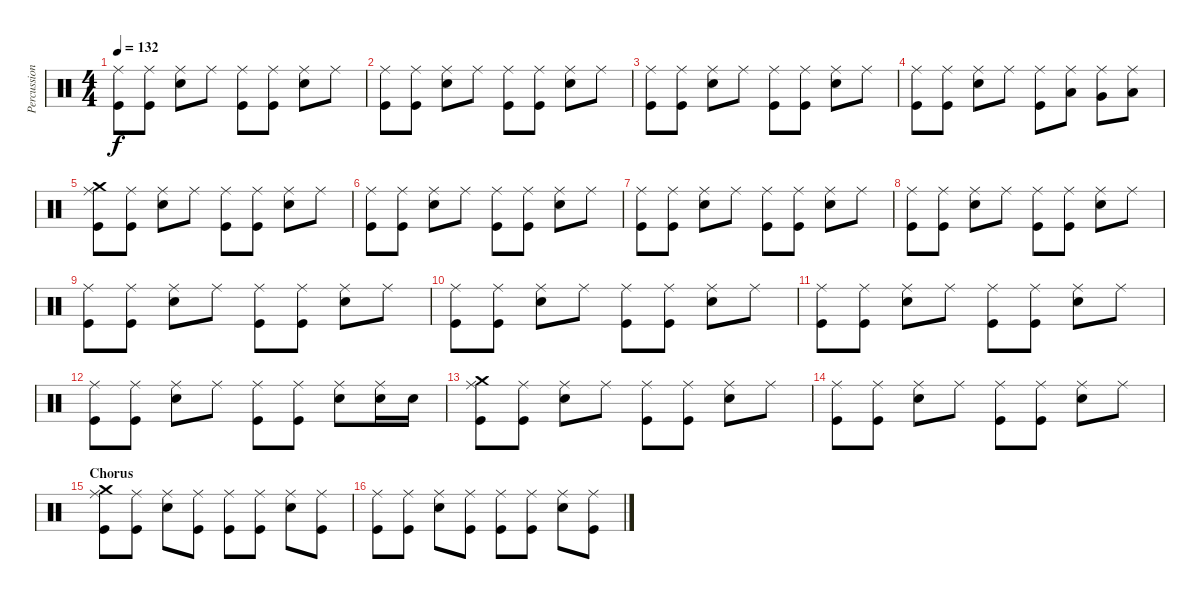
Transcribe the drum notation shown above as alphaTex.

\track ("Percussions" "Percussion") {instrument percussion}
\staff {score}
\articulation defaults
\ts (4 4)
\tempo 132
\clef neutral
\ks c
("Ride (middle)" "Kick (hit)").8{dy f} ("Ride (middle)" "Kick (hit)").8 ("Ride (middle)" "Snare (hit) 2").8 "Ride (middle)".8 ("Ride (middle)" "Kick (hit)").8 ("Ride (middle)" "Kick (hit)").8 ("Ride (middle)" "Snare (hit) 2").8 "Ride (middle)".8 |
("Ride (middle)" "Kick (hit)").8 ("Ride (middle)" "Kick (hit)").8 ("Ride (middle)" "Snare (hit) 2").8 "Ride (middle)".8 ("Ride (middle)" "Kick (hit)").8 ("Ride (middle)" "Kick (hit)").8 ("Ride (middle)" "Snare (hit) 2").8 "Ride (middle)".8 |
("Ride (middle)" "Kick (hit)").8 ("Ride (middle)" "Kick (hit)").8 ("Ride (middle)" "Snare (hit) 2").8 "Ride (middle)".8 ("Ride (middle)" "Kick (hit)").8 ("Ride (middle)" "Kick (hit)").8 ("Ride (middle)" "Snare (hit) 2").8 "Ride (middle)".8 |
("Ride (middle)" "Kick (hit)").8 ("Ride (middle)" "Kick (hit)").8 ("Ride (middle)" "Snare (hit) 2").8 "Ride (middle)".8 ("Ride (middle)" "Kick (hit)").8 ("Ride (middle)" "Low Tom (hit)").8 ("Ride (middle)" "Very Low Tom (hit)").8 ("Ride (middle)" "Low Floor Tom (hit)").8 |
("Ride (middle)" "Crash medium (hit)" "Kick (hit)").8 ("Ride (middle)" "Kick (hit)").8 ("Ride (middle)" "Snare (hit) 2").8 "Ride (middle)".8 ("Ride (middle)" "Kick (hit)").8 ("Ride (middle)" "Kick (hit)").8 ("Ride (middle)" "Snare (hit) 2").8 "Ride (middle)".8 |
("Ride (middle)" "Kick (hit)").8 ("Ride (middle)" "Kick (hit)").8 ("Ride (middle)" "Snare (hit) 2").8 "Ride (middle)".8 ("Ride (middle)" "Kick (hit)").8 ("Ride (middle)" "Kick (hit)").8 ("Ride (middle)" "Snare (hit) 2").8 "Ride (middle)".8 |
("Ride (middle)" "Kick (hit)").8 ("Ride (middle)" "Kick (hit)").8 ("Ride (middle)" "Snare (hit) 2").8 "Ride (middle)".8 ("Ride (middle)" "Kick (hit)").8 ("Ride (middle)" "Kick (hit)").8 ("Ride (middle)" "Snare (hit) 2").8 "Ride (middle)".8 |
("Ride (middle)" "Kick (hit)").8 ("Ride (middle)" "Kick (hit)").8 ("Ride (middle)" "Snare (hit) 2").8 "Ride (middle)".8 ("Ride (middle)" "Kick (hit)").8 ("Ride (middle)" "Kick (hit)").8 ("Ride (middle)" "Snare (hit) 2").8 "Ride (middle)".8 |
("Ride (middle)" "Kick (hit)").8 ("Ride (middle)" "Kick (hit)").8 ("Ride (middle)" "Snare (hit) 2").8 "Ride (middle)".8 ("Ride (middle)" "Kick (hit)").8 ("Ride (middle)" "Kick (hit)").8 ("Ride (middle)" "Snare (hit) 2").8 "Ride (middle)".8 |
("Ride (middle)" "Kick (hit)").8 ("Ride (middle)" "Kick (hit)").8 ("Ride (middle)" "Snare (hit) 2").8 "Ride (middle)".8 ("Ride (middle)" "Kick (hit)").8 ("Ride (middle)" "Kick (hit)").8 ("Ride (middle)" "Snare (hit) 2").8 "Ride (middle)".8 |
("Ride (middle)" "Kick (hit)").8 ("Ride (middle)" "Kick (hit)").8 ("Ride (middle)" "Snare (hit) 2").8 "Ride (middle)".8 ("Ride (middle)" "Kick (hit)").8 ("Ride (middle)" "Kick (hit)").8 ("Ride (middle)" "Snare (hit) 2").8 "Ride (middle)".8 |
("Ride (middle)" "Kick (hit)").8 ("Ride (middle)" "Kick (hit)").8 ("Ride (middle)" "Snare (hit) 2").8 "Ride (middle)".8 ("Ride (middle)" "Kick (hit)").8 ("Ride (middle)" "Kick (hit)").8 ("Ride (middle)" "Snare (hit) 2").8 ("Ride (middle)" "Snare (hit) 2").16 "Snare (hit) 2".16 |
("Ride (middle)" "Crash medium (hit)" "Kick (hit)").8 ("Ride (middle)" "Kick (hit)").8 ("Ride (middle)" "Snare (hit) 2").8 "Ride (middle)".8 ("Ride (middle)" "Kick (hit)").8 ("Ride (middle)" "Kick (hit)").8 ("Ride (middle)" "Snare (hit) 2").8 "Ride (middle)".8 |
("Ride (middle)" "Kick (hit)").8 ("Ride (middle)" "Kick (hit)").8 ("Ride (middle)" "Snare (hit) 2").8 "Ride (middle)".8 ("Ride (middle)" "Kick (hit)").8 ("Ride (middle)" "Kick (hit)").8 ("Ride (middle)" "Snare (hit) 2").8 "Ride (middle)".8 |
\section ("" "Chorus")
("Ride (middle)" "Crash medium (hit)" "Kick (hit)").8 ("Ride (middle)" "Kick (hit)").8 ("Ride (middle)" "Snare (hit) 2").8 ("Ride (middle)" "Kick (hit)").8 ("Ride (middle)" "Kick (hit)").8 ("Ride (middle)" "Kick (hit)").8 ("Ride (middle)" "Snare (hit) 2").8 ("Ride (middle)" "Kick (hit)").8 |
("Ride (middle)" "Kick (hit)").8 ("Ride (middle)" "Kick (hit)").8 ("Ride (middle)" "Snare (hit) 2").8 ("Ride (middle)" "Kick (hit)").8 ("Ride (middle)" "Kick (hit)").8 ("Ride (middle)" "Kick (hit)").8 ("Ride (middle)" "Snare (hit) 2").8 ("Ride (middle)" "Kick (hit)").8
